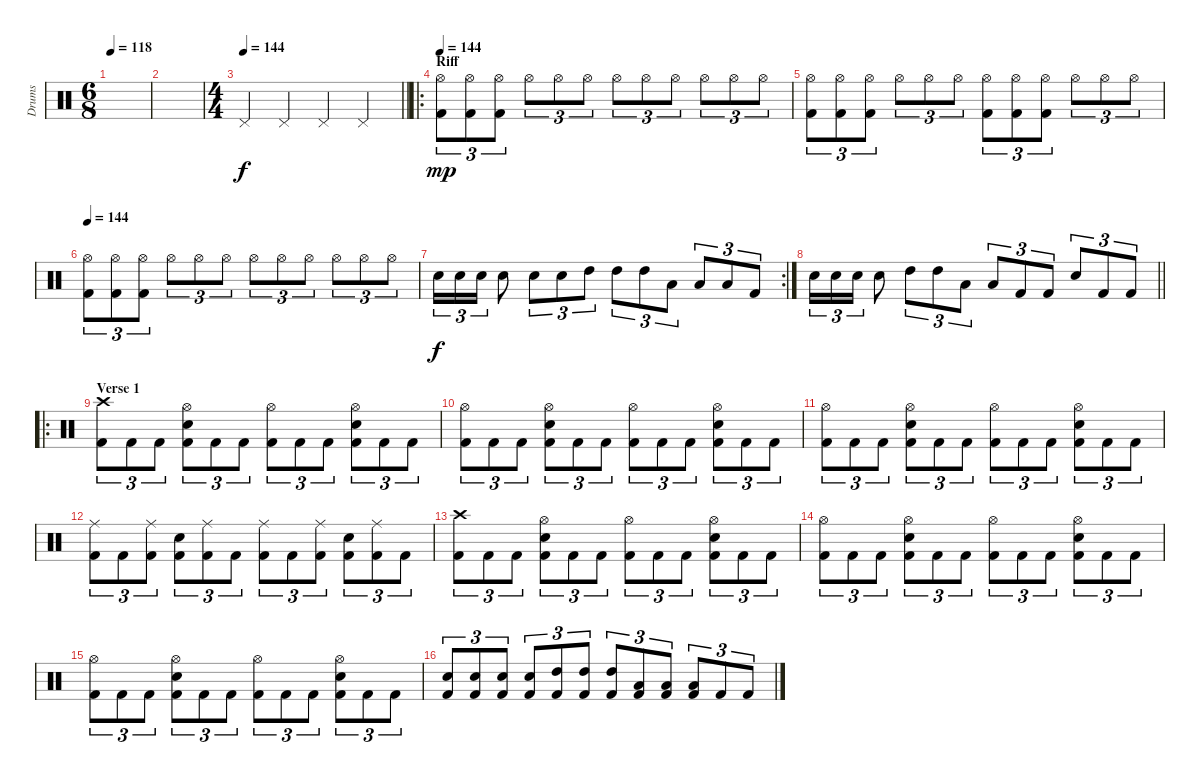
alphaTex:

\track ("Drums" "Drums") {instrument percussion}
\staff {score}
\articulation defaults
\ts (6 8)
\tempo 118
\clef neutral
\ks c
|
|
\ts (4 4)
\tempo 144
\barLineRight lightlight "Pedal Hi-Hat (hit)".4 "Pedal Hi-Hat (hit)".4 "Pedal Hi-Hat (hit)".4 "Pedal Hi-Hat (hit)".4
|
\ro
\section ("" "Riff")
\tempo 144
("Hi-Hat (open)" "Kick (hit) 2").8{tu (3 2) dy mp} ("Hi-Hat (open)" "Kick (hit) 2").8{tu (3 2)} ("Hi-Hat (open)" "Kick (hit) 2").8{tu (3 2)} "Hi-Hat (open)".8{tu (3 2)} "Hi-Hat (open)".8{tu (3 2)} "Hi-Hat (open)".8{tu (3 2)} "Hi-Hat (open)".8{tu (3 2)} "Hi-Hat (open)".8{tu (3 2)} "Hi-Hat (open)".8{tu (3 2)} "Hi-Hat (open)".8{tu (3 2)} "Hi-Hat (open)".8{tu (3 2)} "Hi-Hat (open)".8{tu (3 2)} |
("Hi-Hat (open)" "Kick (hit) 2").8{tu (3 2)} ("Hi-Hat (open)" "Kick (hit) 2").8{tu (3 2)} ("Hi-Hat (open)" "Kick (hit) 2").8{tu (3 2)} "Hi-Hat (open)".8{tu (3 2)} "Hi-Hat (open)".8{tu (3 2)} "Hi-Hat (open)".8{tu (3 2)} ("Hi-Hat (open)" "Kick (hit) 2").8{tu (3 2)} ("Hi-Hat (open)" "Kick (hit) 2").8{tu (3 2)} ("Hi-Hat (open)" "Kick (hit) 2").8{tu (3 2)} "Hi-Hat (open)".8{tu (3 2)} "Hi-Hat (open)".8{tu (3 2)} "Hi-Hat (open)".8{tu (3 2)} |
\tempo 144
("Hi-Hat (open)" "Kick (hit) 2").8{tu (3 2)} ("Hi-Hat (open)" "Kick (hit) 2").8{tu (3 2)} ("Hi-Hat (open)" "Kick (hit) 2").8{tu (3 2)} "Hi-Hat (open)".8{tu (3 2)} "Hi-Hat (open)".8{tu (3 2)} "Hi-Hat (open)".8{tu (3 2)} "Hi-Hat (open)".8{tu (3 2)} "Hi-Hat (open)".8{tu (3 2)} "Hi-Hat (open)".8{tu (3 2)} "Hi-Hat (open)".8{tu (3 2)} "Hi-Hat (open)".8{tu (3 2)} "Hi-Hat (open)".8{tu (3 2)} |
\rc 2 "Snare (hit) 2".16{tu (3 2) dy f} "Snare (hit) 2".16{tu (3 2)} "Snare (hit) 2".16{tu (3 2)} "Snare (hit) 2".8 "Snare (hit) 2".8{tu (3 2)} "Snare (hit) 2".8{tu (3 2)} "High Tom (hit)".8{tu (3 2)} "High Tom (hit)".8{tu (3 2)} "High Tom (hit)".8{tu (3 2)} "Low Tom (hit)".8{tu (3 2)} "Low Tom (hit)".8{tu (3 2)} "Low Tom (hit)".8{tu (3 2)} "Kick (hit) 2".8{tu (3 2)}
|
\barLineRight lightlight "Snare (hit) 2".16{tu (3 2)} "Snare (hit) 2".16{tu (3 2)} "Snare (hit) 2".16{tu (3 2)} "Snare (hit) 2".8 "High Tom (hit)".8{tu (3 2)} "High Tom (hit)".8{tu (3 2)} "Low Tom (hit)".8{tu (3 2)} "Low Tom (hit)".8{tu (3 2)} "Kick (hit) 2".8{tu (3 2)} "Kick (hit) 2".8{tu (3 2)} "Snare (hit) 2".8{tu (3 2)} "Kick (hit) 2".8{tu (3 2)} "Kick (hit) 2".8{tu (3 2)}
|
\ro
\section ("" "Verse 1")
("Crash high (hit)" "Kick (hit) 2").8{tu (3 2)} "Kick (hit) 2".8{tu (3 2)} "Kick (hit) 2".8{tu (3 2)} ("Hi-Hat (open)" "Snare (hit) 2" "Kick (hit) 2").8{tu (3 2)} "Kick (hit) 2".8{tu (3 2)} "Kick (hit) 2".8{tu (3 2)} ("Hi-Hat (open)" "Kick (hit) 2").8{tu (3 2)} "Kick (hit) 2".8{tu (3 2)} "Kick (hit) 2".8{tu (3 2)} ("Hi-Hat (open)" "Snare (hit) 2" "Kick (hit) 2").8{tu (3 2)} "Kick (hit) 2".8{tu (3 2)} "Kick (hit) 2".8{tu (3 2)} |
("Hi-Hat (open)" "Kick (hit) 2").8{tu (3 2)} "Kick (hit) 2".8{tu (3 2)} "Kick (hit) 2".8{tu (3 2)} ("Hi-Hat (open)" "Snare (hit) 2" "Kick (hit) 2").8{tu (3 2)} "Kick (hit) 2".8{tu (3 2)} "Kick (hit) 2".8{tu (3 2)} ("Hi-Hat (open)" "Kick (hit) 2").8{tu (3 2)} "Kick (hit) 2".8{tu (3 2)} "Kick (hit) 2".8{tu (3 2)} ("Hi-Hat (open)" "Snare (hit) 2" "Kick (hit) 2").8{tu (3 2)} "Kick (hit) 2".8{tu (3 2)} "Kick (hit) 2".8{tu (3 2)} |
("Hi-Hat (open)" "Kick (hit) 2").8{tu (3 2)} "Kick (hit) 2".8{tu (3 2)} "Kick (hit) 2".8{tu (3 2)} ("Hi-Hat (open)" "Snare (hit) 2" "Kick (hit) 2").8{tu (3 2)} "Kick (hit) 2".8{tu (3 2)} "Kick (hit) 2".8{tu (3 2)} ("Hi-Hat (open)" "Kick (hit) 2").8{tu (3 2)} "Kick (hit) 2".8{tu (3 2)} "Kick (hit) 2".8{tu (3 2)} ("Hi-Hat (open)" "Snare (hit) 2" "Kick (hit) 2").8{tu (3 2)} "Kick (hit) 2".8{tu (3 2)} "Kick (hit) 2".8{tu (3 2)} |
("Ride (middle)" "Kick (hit) 2").8{tu (3 2)} "Kick (hit) 2".8{tu (3 2)} ("Ride (middle)" "Kick (hit) 2").8{tu (3 2)} ("Snare (hit) 2" "Kick (hit) 2").8{tu (3 2)} ("Ride (middle)" "Kick (hit) 2").8{tu (3 2)} "Kick (hit) 2".8{tu (3 2)} ("Ride (middle)" "Kick (hit) 2").8{tu (3 2)} "Kick (hit) 2".8{tu (3 2)} ("Ride (middle)" "Kick (hit) 2").8{tu (3 2)} ("Snare (hit) 2" "Kick (hit) 2").8{tu (3 2)} ("Ride (middle)" "Kick (hit) 2").8{tu (3 2)} "Kick (hit) 2".8{tu (3 2)} |
("Crash high (hit)" "Kick (hit) 2").8{tu (3 2)} "Kick (hit) 2".8{tu (3 2)} "Kick (hit) 2".8{tu (3 2)} ("Hi-Hat (open)" "Snare (hit) 2" "Kick (hit) 2").8{tu (3 2)} "Kick (hit) 2".8{tu (3 2)} "Kick (hit) 2".8{tu (3 2)} ("Hi-Hat (open)" "Kick (hit) 2").8{tu (3 2)} "Kick (hit) 2".8{tu (3 2)} "Kick (hit) 2".8{tu (3 2)} ("Hi-Hat (open)" "Snare (hit) 2" "Kick (hit) 2").8{tu (3 2)} "Kick (hit) 2".8{tu (3 2)} "Kick (hit) 2".8{tu (3 2)} |
("Hi-Hat (open)" "Kick (hit) 2").8{tu (3 2)} "Kick (hit) 2".8{tu (3 2)} "Kick (hit) 2".8{tu (3 2)} ("Hi-Hat (open)" "Snare (hit) 2" "Kick (hit) 2").8{tu (3 2)} "Kick (hit) 2".8{tu (3 2)} "Kick (hit) 2".8{tu (3 2)} ("Hi-Hat (open)" "Kick (hit) 2").8{tu (3 2)} "Kick (hit) 2".8{tu (3 2)} "Kick (hit) 2".8{tu (3 2)} ("Hi-Hat (open)" "Snare (hit) 2" "Kick (hit) 2").8{tu (3 2)} "Kick (hit) 2".8{tu (3 2)} "Kick (hit) 2".8{tu (3 2)} |
("Hi-Hat (open)" "Kick (hit) 2").8{tu (3 2)} "Kick (hit) 2".8{tu (3 2)} "Kick (hit) 2".8{tu (3 2)} ("Hi-Hat (open)" "Snare (hit) 2" "Kick (hit) 2").8{tu (3 2)} "Kick (hit) 2".8{tu (3 2)} "Kick (hit) 2".8{tu (3 2)} ("Hi-Hat (open)" "Kick (hit) 2").8{tu (3 2)} "Kick (hit) 2".8{tu (3 2)} "Kick (hit) 2".8{tu (3 2)} ("Hi-Hat (open)" "Snare (hit) 2" "Kick (hit) 2").8{tu (3 2)} "Kick (hit) 2".8{tu (3 2)} "Kick (hit) 2".8{tu (3 2)} |
("Snare (hit) 2" "Kick (hit) 2").8{tu (3 2)} ("Snare (hit) 2" "Kick (hit) 2").8{tu (3 2)} ("Snare (hit) 2" "Kick (hit) 2").8{tu (3 2)} ("Snare (hit) 2" "Kick (hit) 2").8{tu (3 2)} ("High Tom (hit)" "Kick (hit) 2").8{tu (3 2)} ("High Tom (hit)" "Kick (hit) 2").8{tu (3 2)} ("High Tom (hit)" "Kick (hit) 2").8{tu (3 2)} ("Low Tom (hit)" "Kick (hit) 2").8{tu (3 2)} ("Low Tom (hit)" "Kick (hit) 2").8{tu (3 2)} ("Low Tom (hit)" "Kick (hit) 2").8{tu (3 2)} "Kick (hit) 2".8{tu (3 2)} "Kick (hit) 2".8{tu (3 2)}
